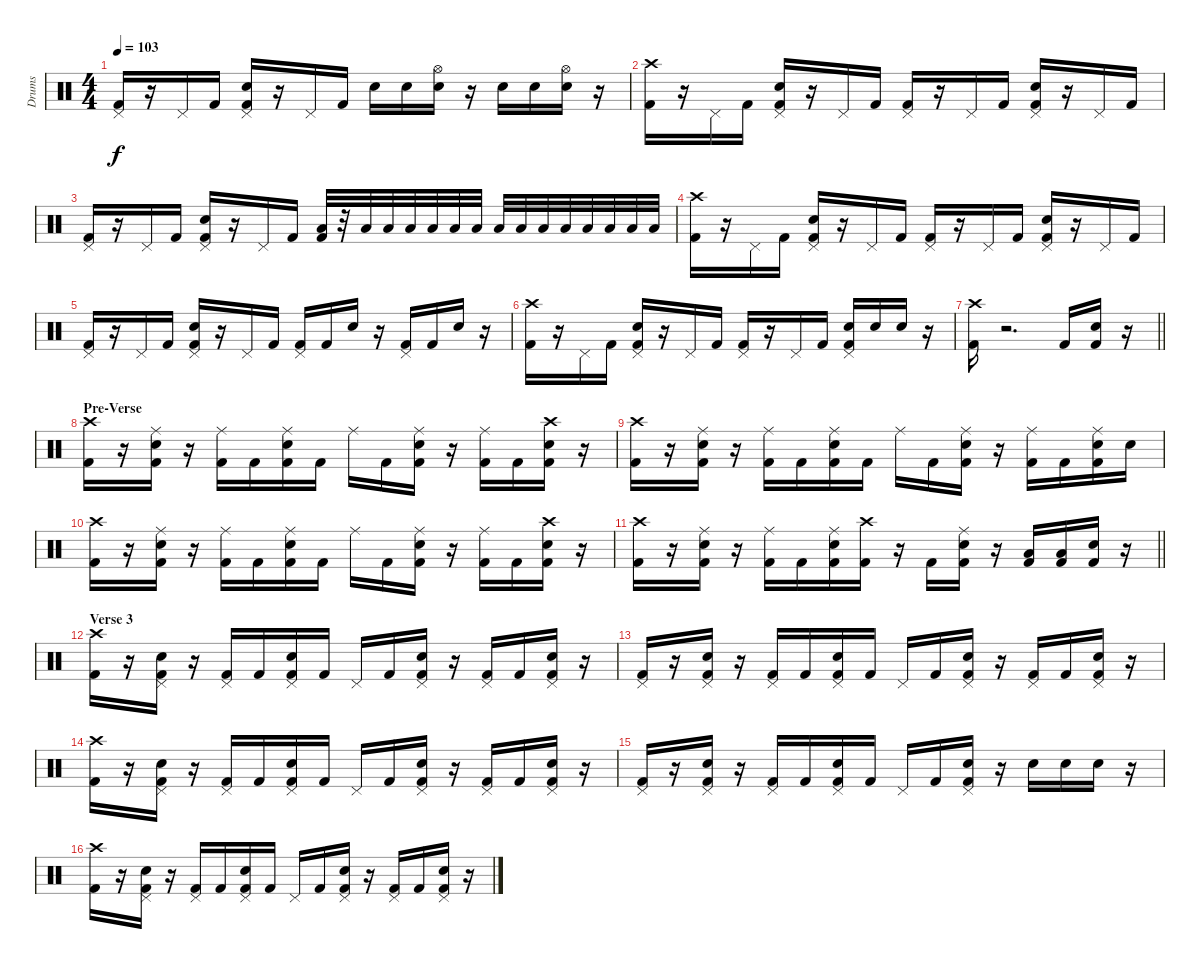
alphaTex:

\track ("Drums" "Drums") {instrument percussion}
\staff {score}
\articulation defaults
\ts (4 4)
\tempo 103
\clef neutral
\ks c
("Pedal Hi-Hat (hit)" "Kick (hit) 2").16{dy f} r.16 "Pedal Hi-Hat (hit)".16 "Kick (hit) 2".16 ("Pedal Hi-Hat (hit)" "Snare (hit) 2" "Kick (hit) 2").16 r.16 "Pedal Hi-Hat (hit)".16 "Kick (hit) 2".16 "Snare (hit) 2".16 "Snare (hit) 2".16 ("Hi-Hat (open)" "Snare (hit) 2").16 r.16 "Snare (hit) 2".16 "Snare (hit) 2".16 ("Hi-Hat (open)" "Snare (hit) 2").16 r.16 |
("Crash high (hit)" "Kick (hit) 2").16 r.16 "Pedal Hi-Hat (hit)".16 "Kick (hit) 2".16 ("Pedal Hi-Hat (hit)" "Snare (hit) 2" "Kick (hit) 2").16 r.16 "Pedal Hi-Hat (hit)".16 "Kick (hit) 2".16 ("Pedal Hi-Hat (hit)" "Kick (hit) 2").16 r.16 "Pedal Hi-Hat (hit)".16 "Kick (hit) 2".16 ("Pedal Hi-Hat (hit)" "Snare (hit) 2" "Kick (hit) 2").16 r.16 "Pedal Hi-Hat (hit)".16 "Kick (hit) 2".16 |
("Pedal Hi-Hat (hit)" "Kick (hit) 2").16 r.16 "Pedal Hi-Hat (hit)".16 "Kick (hit) 2".16 ("Pedal Hi-Hat (hit)" "Snare (hit) 2" "Kick (hit) 2").16 r.16 "Pedal Hi-Hat (hit)".16 "Kick (hit) 2".16 ("Low Tom (hit)" "Kick (hit) 2").32 r.32 "Low Tom (hit)".32 "Low Tom (hit)".32 "Low Tom (hit)".32 "Low Tom (hit)".32 "Low Tom (hit)".32 "Low Tom (hit)".32 "Low Tom (hit)".32 "Low Tom (hit)".32 "Low Tom (hit)".32 "Low Tom (hit)".32 "Low Tom (hit)".32 "Low Tom (hit)".32 "Low Tom (hit)".32 "Low Tom (hit)".32 |
("Crash high (hit)" "Kick (hit) 2").16 r.16 "Pedal Hi-Hat (hit)".16 "Kick (hit) 2".16 ("Pedal Hi-Hat (hit)" "Snare (hit) 2" "Kick (hit) 2").16 r.16 "Pedal Hi-Hat (hit)".16 "Kick (hit) 2".16 ("Pedal Hi-Hat (hit)" "Kick (hit) 2").16 r.16 "Pedal Hi-Hat (hit)".16 "Kick (hit) 2".16 ("Pedal Hi-Hat (hit)" "Snare (hit) 2" "Kick (hit) 2").16 r.16 "Pedal Hi-Hat (hit)".16 "Kick (hit) 2".16 |
("Pedal Hi-Hat (hit)" "Kick (hit) 2").16 r.16 "Pedal Hi-Hat (hit)".16 "Kick (hit) 2".16 ("Pedal Hi-Hat (hit)" "Snare (hit) 2" "Kick (hit) 2").16 r.16 "Pedal Hi-Hat (hit)".16 "Kick (hit) 2".16 ("Pedal Hi-Hat (hit)" "Kick (hit) 2").16 "Kick (hit) 2".16 "Snare (hit) 2".16 r.16 ("Pedal Hi-Hat (hit)" "Kick (hit) 2").16 "Kick (hit) 2".16 "Snare (hit) 2".16 r.16 |
("Crash high (hit)" "Kick (hit) 2").16 r.16 "Pedal Hi-Hat (hit)".16 "Kick (hit) 2".16 ("Pedal Hi-Hat (hit)" "Snare (hit) 2" "Kick (hit) 2").16 r.16 "Pedal Hi-Hat (hit)".16 "Kick (hit) 2".16 ("Pedal Hi-Hat (hit)" "Kick (hit) 2").16 r.16 "Pedal Hi-Hat (hit)".16 "Kick (hit) 2".16 ("Pedal Hi-Hat (hit)" "Snare (hit) 2" "Kick (hit) 2").16 "Snare (hit) 2".16 "Snare (hit) 2".16 r.16 |
\barLineRight lightlight
("Crash high (hit)" "Kick (hit) 2").16 r.2{d} "Kick (hit) 2".16 ("Snare (hit) 2" "Kick (hit) 2").16 r.16 |
\section ("" "Pre-Verse")
("Crash high (hit)" "Kick (hit) 2").16 r.16 ("Ride (middle)" "Snare (hit) 2" "Kick (hit) 2").16 r.16 ("Ride (middle)" "Kick (hit) 2").16 "Kick (hit) 2".16 ("Ride (middle)" "Snare (hit) 2" "Kick (hit) 2").16 "Kick (hit) 2".16 "Ride (middle)".16 "Kick (hit) 2".16 ("Ride (middle)" "Snare (hit) 2" "Kick (hit) 2").16 r.16 ("Ride (middle)" "Kick (hit) 2").16 "Kick (hit) 2".16 ("Crash high (hit)" "Snare (hit) 2" "Kick (hit) 2").16 r.16 |
("Crash high (hit)" "Kick (hit) 2").16 r.16 ("Ride (middle)" "Snare (hit) 2" "Kick (hit) 2").16 r.16 ("Ride (middle)" "Kick (hit) 2").16 "Kick (hit) 2".16 ("Ride (middle)" "Snare (hit) 2" "Kick (hit) 2").16 "Kick (hit) 2".16 "Ride (middle)".16 "Kick (hit) 2".16 ("Ride (middle)" "Snare (hit) 2" "Kick (hit) 2").16 r.16 ("Ride (middle)" "Kick (hit) 2").16 "Kick (hit) 2".16 ("Ride (middle)" "Snare (hit) 2" "Kick (hit) 2").16 "Snare (hit) 2".16 |
("Crash high (hit)" "Kick (hit) 2").16 r.16 ("Ride (middle)" "Snare (hit) 2" "Kick (hit) 2").16 r.16 ("Ride (middle)" "Kick (hit) 2").16 "Kick (hit) 2".16 ("Ride (middle)" "Snare (hit) 2" "Kick (hit) 2").16 "Kick (hit) 2".16 "Ride (middle)".16 "Kick (hit) 2".16 ("Ride (middle)" "Snare (hit) 2" "Kick (hit) 2").16 r.16 ("Ride (middle)" "Kick (hit) 2").16 "Kick (hit) 2".16 ("Crash high (hit)" "Snare (hit) 2" "Kick (hit) 2").16 r.16 |
\barLineRight lightlight
("Crash high (hit)" "Kick (hit) 2").16 r.16 ("Ride (middle)" "Snare (hit) 2" "Kick (hit) 2").16 r.16 ("Ride (middle)" "Kick (hit) 2").16 "Kick (hit) 2".16 ("Ride (middle)" "Snare (hit) 2" "Kick (hit) 2").16 ("Crash high (hit)" "Kick (hit) 2").16 r.16 "Kick (hit) 2".16 ("Ride (middle)" "Snare (hit) 2" "Kick (hit) 2").16 r.16 ("Low Tom (hit)" "Kick (hit) 2").16 ("Low Tom (hit)" "Kick (hit) 2").16 ("Snare (hit) 2" "Kick (hit) 2").16 r.16 |
\section ("" "Verse 3")
("Crash high (hit)" "Kick (hit) 2").16 r.16 ("Pedal Hi-Hat (hit)" "Snare (hit) 2" "Kick (hit) 2").16 r.16 ("Pedal Hi-Hat (hit)" "Kick (hit) 2").16 "Kick (hit) 2".16 ("Pedal Hi-Hat (hit)" "Snare (hit) 2" "Kick (hit) 2").16 "Kick (hit) 2".16 "Pedal Hi-Hat (hit)".16 "Kick (hit) 2".16 ("Pedal Hi-Hat (hit)" "Snare (hit) 2" "Kick (hit) 2").16 r.16 ("Pedal Hi-Hat (hit)" "Kick (hit) 2").16 "Kick (hit) 2".16 ("Pedal Hi-Hat (hit)" "Snare (hit) 2" "Kick (hit) 2").16 r.16 |
("Pedal Hi-Hat (hit)" "Kick (hit) 2").16 r.16 ("Pedal Hi-Hat (hit)" "Snare (hit) 2" "Kick (hit) 2").16 r.16 ("Pedal Hi-Hat (hit)" "Kick (hit) 2").16 "Kick (hit) 2".16 ("Pedal Hi-Hat (hit)" "Snare (hit) 2" "Kick (hit) 2").16 "Kick (hit) 2".16 "Pedal Hi-Hat (hit)".16 "Kick (hit) 2".16 ("Pedal Hi-Hat (hit)" "Snare (hit) 2" "Kick (hit) 2").16 r.16 ("Pedal Hi-Hat (hit)" "Kick (hit) 2").16 "Kick (hit) 2".16 ("Pedal Hi-Hat (hit)" "Snare (hit) 2" "Kick (hit) 2").16 r.16 |
("Crash high (hit)" "Kick (hit) 2").16 r.16 ("Pedal Hi-Hat (hit)" "Snare (hit) 2" "Kick (hit) 2").16 r.16 ("Pedal Hi-Hat (hit)" "Kick (hit) 2").16 "Kick (hit) 2".16 ("Pedal Hi-Hat (hit)" "Snare (hit) 2" "Kick (hit) 2").16 "Kick (hit) 2".16 "Pedal Hi-Hat (hit)".16 "Kick (hit) 2".16 ("Pedal Hi-Hat (hit)" "Snare (hit) 2" "Kick (hit) 2").16 r.16 ("Pedal Hi-Hat (hit)" "Kick (hit) 2").16 "Kick (hit) 2".16 ("Pedal Hi-Hat (hit)" "Snare (hit) 2" "Kick (hit) 2").16 r.16 |
("Pedal Hi-Hat (hit)" "Kick (hit) 2").16 r.16 ("Pedal Hi-Hat (hit)" "Snare (hit) 2" "Kick (hit) 2").16 r.16 ("Pedal Hi-Hat (hit)" "Kick (hit) 2").16 "Kick (hit) 2".16 ("Pedal Hi-Hat (hit)" "Snare (hit) 2" "Kick (hit) 2").16 "Kick (hit) 2".16 "Pedal Hi-Hat (hit)".16 "Kick (hit) 2".16 ("Pedal Hi-Hat (hit)" "Snare (hit) 2" "Kick (hit) 2").16 r.16 "Snare (hit) 2".16 "Snare (hit) 2".16 "Snare (hit) 2".16 r.16 |
("Crash high (hit)" "Kick (hit) 2").16 r.16 ("Pedal Hi-Hat (hit)" "Snare (hit) 2" "Kick (hit) 2").16 r.16 ("Pedal Hi-Hat (hit)" "Kick (hit) 2").16 "Kick (hit) 2".16 ("Pedal Hi-Hat (hit)" "Snare (hit) 2" "Kick (hit) 2").16 "Kick (hit) 2".16 "Pedal Hi-Hat (hit)".16 "Kick (hit) 2".16 ("Pedal Hi-Hat (hit)" "Snare (hit) 2" "Kick (hit) 2").16 r.16 ("Pedal Hi-Hat (hit)" "Kick (hit) 2").16 "Kick (hit) 2".16 ("Pedal Hi-Hat (hit)" "Snare (hit) 2" "Kick (hit) 2").16 r.16
